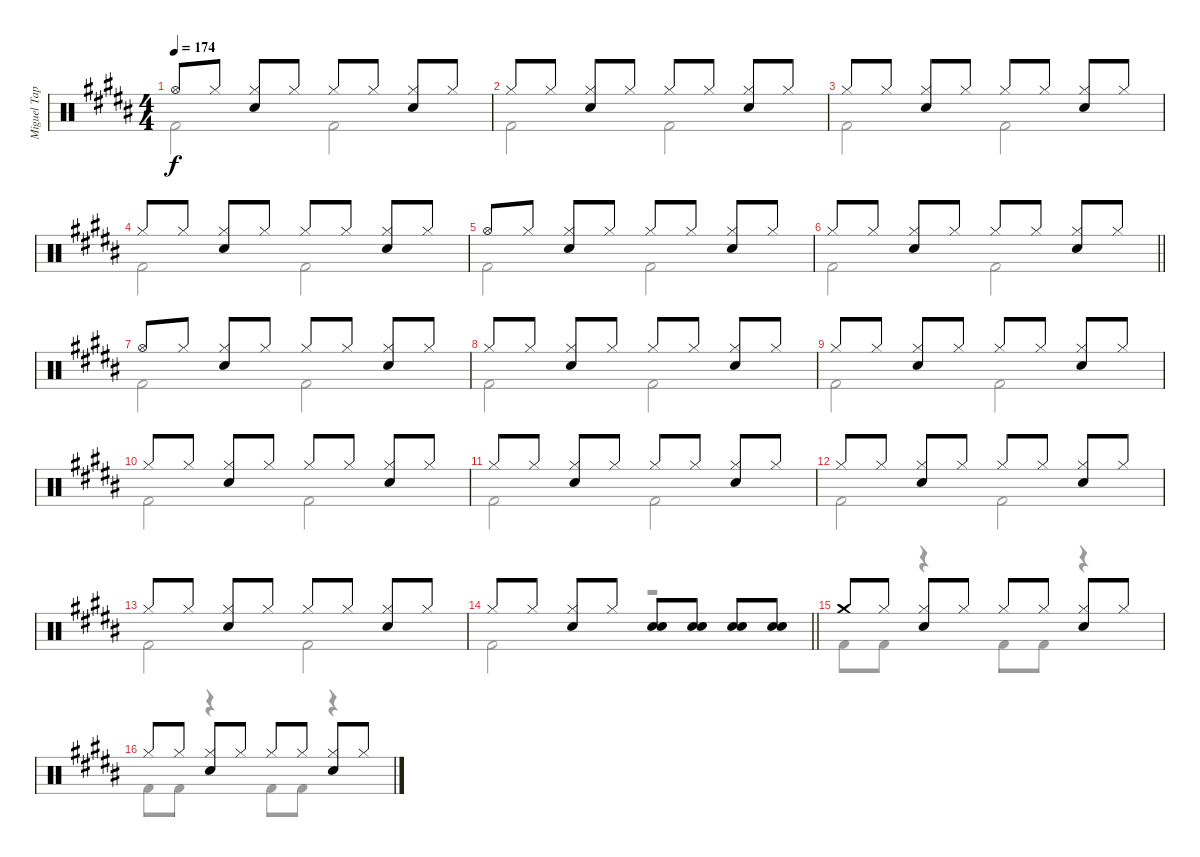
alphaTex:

\track ("Miguel Tapia" "Miguel Tap") {instrument percussion}
\staff {score}
\articulation defaults
\voice
\ts (4 4)
\tempo 174
\clef neutral
\ks b "Hi-Hat (open)".8{dy f} "Hi-Hat (closed)".8
("Hi-Hat (closed)" "Snare (hit) 2").8 "Hi-Hat (closed)".8 "Hi-Hat (closed)".8 "Hi-Hat (closed)".8 ("Hi-Hat (closed)" "Snare (hit) 2").8 "Hi-Hat (closed)".8 |
"Hi-Hat (closed)".8 "Hi-Hat (closed)".8 ("Hi-Hat (closed)" "Snare (hit) 2").8 "Hi-Hat (closed)".8 "Hi-Hat (closed)".8 "Hi-Hat (closed)".8 ("Hi-Hat (closed)" "Snare (hit) 2").8 "Hi-Hat (closed)".8 |
"Hi-Hat (closed)".8 "Hi-Hat (closed)".8 ("Hi-Hat (closed)" "Snare (hit) 2").8 "Hi-Hat (closed)".8 "Hi-Hat (closed)".8 "Hi-Hat (closed)".8 ("Hi-Hat (closed)" "Snare (hit) 2").8 "Hi-Hat (closed)".8 |
"Hi-Hat (closed)".8 "Hi-Hat (closed)".8 ("Hi-Hat (closed)" "Snare (hit) 2").8 "Hi-Hat (closed)".8 "Hi-Hat (closed)".8 "Hi-Hat (closed)".8 ("Hi-Hat (closed)" "Snare (hit) 2").8 "Hi-Hat (closed)".8 |
"Hi-Hat (open)".8 "Hi-Hat (closed)".8 ("Hi-Hat (closed)" "Snare (hit) 2").8 "Hi-Hat (closed)".8 "Hi-Hat (closed)".8 "Hi-Hat (closed)".8 ("Hi-Hat (closed)" "Snare (hit) 2").8 "Hi-Hat (closed)".8 |
\barLineRight lightlight "Hi-Hat (closed)".8 "Hi-Hat (closed)".8
("Hi-Hat (closed)" "Snare (hit) 2").8 "Hi-Hat (closed)".8 "Hi-Hat (closed)".8 "Hi-Hat (closed)".8 ("Hi-Hat (closed)" "Snare (hit) 2").8 "Hi-Hat (closed)".8 |
"Hi-Hat (open)".8 "Hi-Hat (closed)".8 ("Hi-Hat (closed)" "Snare (hit) 2").8 "Hi-Hat (closed)".8 "Hi-Hat (closed)".8 "Hi-Hat (closed)".8 ("Hi-Hat (closed)" "Snare (hit) 2").8 "Hi-Hat (closed)".8 |
"Hi-Hat (closed)".8 "Hi-Hat (closed)".8 ("Hi-Hat (closed)" "Snare (hit) 2").8 "Hi-Hat (closed)".8 "Hi-Hat (closed)".8 "Hi-Hat (closed)".8 ("Hi-Hat (closed)" "Snare (hit) 2").8 "Hi-Hat (closed)".8 |
"Hi-Hat (closed)".8 "Hi-Hat (closed)".8 ("Hi-Hat (closed)" "Snare (hit) 2").8 "Hi-Hat (closed)".8 "Hi-Hat (closed)".8 "Hi-Hat (closed)".8 ("Hi-Hat (closed)" "Snare (hit) 2").8 "Hi-Hat (closed)".8 |
"Hi-Hat (closed)".8 "Hi-Hat (closed)".8 ("Hi-Hat (closed)" "Snare (hit) 2").8 "Hi-Hat (closed)".8 "Hi-Hat (closed)".8 "Hi-Hat (closed)".8 ("Hi-Hat (closed)" "Snare (hit) 2").8 "Hi-Hat (closed)".8 |
"Hi-Hat (closed)".8 "Hi-Hat (closed)".8 ("Hi-Hat (closed)" "Snare (hit) 2").8 "Hi-Hat (closed)".8 "Hi-Hat (closed)".8 "Hi-Hat (closed)".8 ("Hi-Hat (closed)" "Snare (hit) 2").8 "Hi-Hat (closed)".8 |
"Hi-Hat (closed)".8 "Hi-Hat (closed)".8 ("Hi-Hat (closed)" "Snare (hit) 2").8 "Hi-Hat (closed)".8 "Hi-Hat (closed)".8 "Hi-Hat (closed)".8 ("Hi-Hat (closed)" "Snare (hit) 2").8 "Hi-Hat (closed)".8 |
"Hi-Hat (closed)".8 "Hi-Hat (closed)".8 ("Hi-Hat (closed)" "Snare (hit) 2").8 "Hi-Hat (closed)".8 "Hi-Hat (closed)".8 "Hi-Hat (closed)".8 ("Hi-Hat (closed)" "Snare (hit) 2").8 "Hi-Hat (closed)".8 |
\barLineRight lightlight "Hi-Hat (closed)".8 "Hi-Hat (closed)".8
("Hi-Hat (closed)" "Snare (hit) 2").8 "Hi-Hat (closed)".8 ("Snare (hit) 2" "Snare (hit) 2").8 ("Snare (hit) 2" "Snare (hit) 2").8 ("Snare (hit) 2" "Snare (hit) 2").8 ("Snare (hit) 2" "Snare (hit) 2").8 |
"Crash medium (hit)".8 "Hi-Hat (closed)".8 ("Hi-Hat (closed)" "Snare (hit) 2").8 "Hi-Hat (closed)".8 "Hi-Hat (closed)".8 "Hi-Hat (closed)".8 ("Hi-Hat (closed)" "Snare (hit) 2").8 "Hi-Hat (closed)".8 |
"Hi-Hat (closed)".8 "Hi-Hat (closed)".8 ("Hi-Hat (closed)" "Snare (hit) 2").8 "Hi-Hat (closed)".8 "Hi-Hat (closed)".8 "Hi-Hat (closed)".8 ("Hi-Hat (closed)" "Snare (hit) 2").8 "Hi-Hat (closed)".8
\voice
\clef neutral
\ottava regular
\simile none
\ks b "Kick (hit) 2".2{dy f} "Kick (hit) 2".2
|
"Kick (hit) 2".2 "Kick (hit) 2".2 |
"Kick (hit) 2".2 "Kick (hit) 2".2 |
"Kick (hit) 2".2 "Kick (hit) 2".2 |
"Kick (hit) 2".2 "Kick (hit) 2".2 |
\barLineRight lightlight "Kick (hit) 2".2 "Kick (hit) 2".2
|
"Kick (hit) 2".2 "Kick (hit) 2".2 |
"Kick (hit) 2".2 "Kick (hit) 2".2 |
"Kick (hit) 2".2 "Kick (hit) 2".2 |
"Kick (hit) 2".2 "Kick (hit) 2".2 |
"Kick (hit) 2".2 "Kick (hit) 2".2 |
"Kick (hit) 2".2 "Kick (hit) 2".2 |
"Kick (hit) 2".2 "Kick (hit) 2".2 |
\barLineRight lightlight "Kick (hit) 2".2
r.2 |
"Kick (hit) 2".8 "Kick (hit) 2".8 r.4 "Kick (hit) 2".8 "Kick (hit) 2".8 r.4 |
"Kick (hit) 2".8 "Kick (hit) 2".8 r.4 "Kick (hit) 2".8 "Kick (hit) 2".8 r.4
